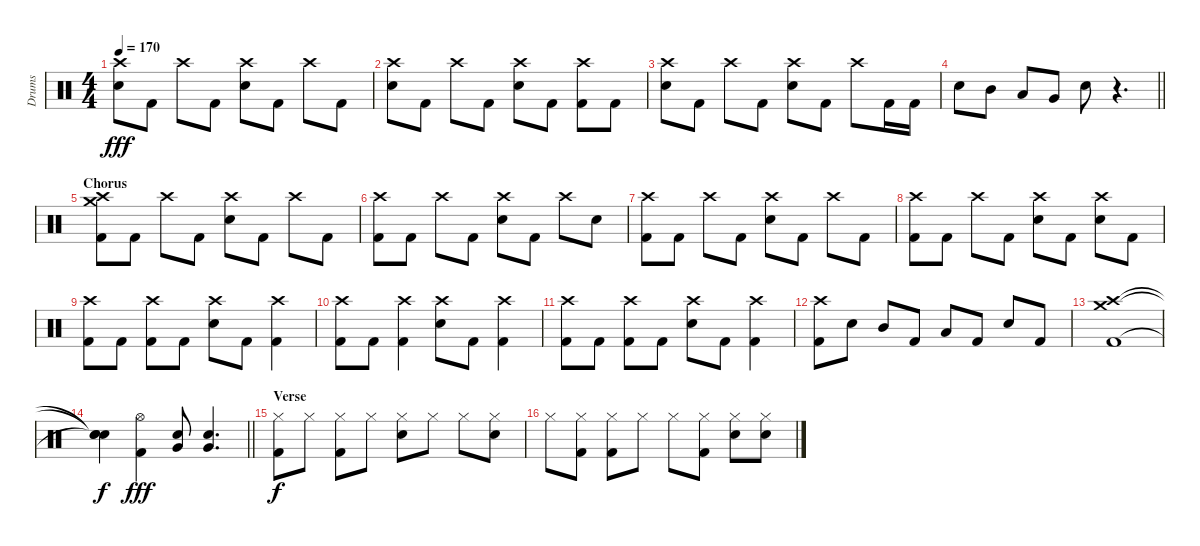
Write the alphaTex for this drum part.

\track ("Drums" "Drums") {instrument percussion}
\staff {score}
\articulation defaults
\ts (4 4)
\tempo 170
\clef neutral
\ks c
("Crash high (hit)" "Electric Snare (hit)").8{dy fff} "Kick (hit) 2".8 "Crash high (hit)".8 "Kick (hit) 2".8 ("Crash high (hit)" "Electric Snare (hit)").8 "Kick (hit) 2".8 "Crash high (hit)".8 "Kick (hit) 2".8 |
("Crash high (hit)" "Electric Snare (hit)").8 "Kick (hit) 2".8 "Crash high (hit)".8 "Kick (hit) 2".8 ("Crash high (hit)" "Electric Snare (hit)").8 "Kick (hit) 2".8 ("Crash high (hit)" "Kick (hit) 2").8 "Kick (hit) 2".8 |
("Crash high (hit)" "Electric Snare (hit)").8 "Kick (hit) 2".8 "Crash high (hit)".8 "Kick (hit) 2".8 ("Crash high (hit)" "Electric Snare (hit)").8 "Kick (hit) 2".8 "Crash high (hit)".8 "Kick (hit) 2".16 "Kick (hit) 2".16 |
\barLineRight lightlight "Electric Snare (hit)".8 "Mid Tom (hit)".8 "Low Tom (hit)".8 "Very Low Tom (hit)".8 "Electric Snare (hit)".8
r.4{d} |
\section ("" "Chorus")
("Crash high (hit)" "Crash medium (hit)" "Kick (hit) 2").8 "Kick (hit) 2".8 "Crash high (hit)".8 "Kick (hit) 2".8 ("Crash high (hit)" "Electric Snare (hit)").8 "Kick (hit) 2".8 "Crash high (hit)".8 "Kick (hit) 2".8 |
("Crash high (hit)" "Kick (hit) 2").8 "Kick (hit) 2".8 "Crash high (hit)".8 "Kick (hit) 2".8 ("Crash high (hit)" "Electric Snare (hit)").8 "Kick (hit) 2".8 "Crash high (hit)".8 "Electric Snare (hit)".8 |
("Crash high (hit)" "Kick (hit) 2").8 "Kick (hit) 2".8 "Crash high (hit)".8 "Kick (hit) 2".8 ("Crash high (hit)" "Electric Snare (hit)").8 "Kick (hit) 2".8 "Crash high (hit)".8 "Kick (hit) 2".8 |
("Crash high (hit)" "Kick (hit) 2").8 "Kick (hit) 2".8 "Crash high (hit)".8 "Kick (hit) 2".8 ("Crash high (hit)" "Electric Snare (hit)").8 "Kick (hit) 2".8 ("Crash high (hit)" "Electric Snare (hit)").8 "Kick (hit) 2".8 |
("Crash high (hit)" "Kick (hit) 2").8 "Kick (hit) 2".8 ("Crash high (hit)" "Kick (hit) 2").8 "Kick (hit) 2".8 ("Crash high (hit)" "Electric Snare (hit)").8 "Kick (hit) 2".8 ("Crash high (hit)" "Kick (hit) 2").4 |
("Crash high (hit)" "Kick (hit) 2").8 "Kick (hit) 2".8 ("Crash high (hit)" "Kick (hit) 2").4 ("Crash high (hit)" "Electric Snare (hit)").8 "Kick (hit) 2".8 ("Crash high (hit)" "Kick (hit) 2").4 |
("Crash high (hit)" "Kick (hit) 2").8 "Kick (hit) 2".8 ("Crash high (hit)" "Kick (hit) 2").8 "Kick (hit) 2".8 ("Crash high (hit)" "Electric Snare (hit)").8 "Kick (hit) 2".8 ("Crash high (hit)" "Kick (hit) 2").4 |
("Crash high (hit)" "Kick (hit) 2").8 "Electric Snare (hit)".8 "Mid Tom (hit)".8 "Kick (hit) 2".8 "Low Tom (hit)".8 "Kick (hit) 2".8 "Electric Snare (hit)".8 "Kick (hit) 2".8 |
("Crash high (hit)" "Crash medium (hit)" "Kick (hit) 2").1 |
\barLineRight lightlight
("Snare (hit)"{t} "Snare (hit)"{t} "Snare (hit)"{t}).4{dy f} ("Hi-Hat (open)" "Kick (hit) 2").4{dy fff} ("Very Low Tom (hit)" "Electric Snare (hit)").8 ("Very Low Tom (hit)" "Electric Snare (hit)").4{d} |
\section ("" "Verse")
("Hi-Hat (closed)" "Kick (hit) 2").8{dy f} "Hi-Hat (closed)".8 ("Hi-Hat (closed)" "Kick (hit) 2").8 "Hi-Hat (closed)".8 ("Hi-Hat (closed)" "Electric Snare (hit)").8 "Hi-Hat (closed)".8 "Hi-Hat (closed)".8 ("Hi-Hat (closed)" "Electric Snare (hit)").8 |
"Hi-Hat (closed)".8 ("Hi-Hat (closed)" "Kick (hit) 2").8 ("Hi-Hat (closed)" "Kick (hit) 2").8 "Hi-Hat (closed)".8 "Hi-Hat (closed)".8 ("Hi-Hat (closed)" "Kick (hit) 2").8 ("Hi-Hat (closed)" "Electric Snare (hit)").8 ("Hi-Hat (closed)" "Electric Snare (hit)").8
